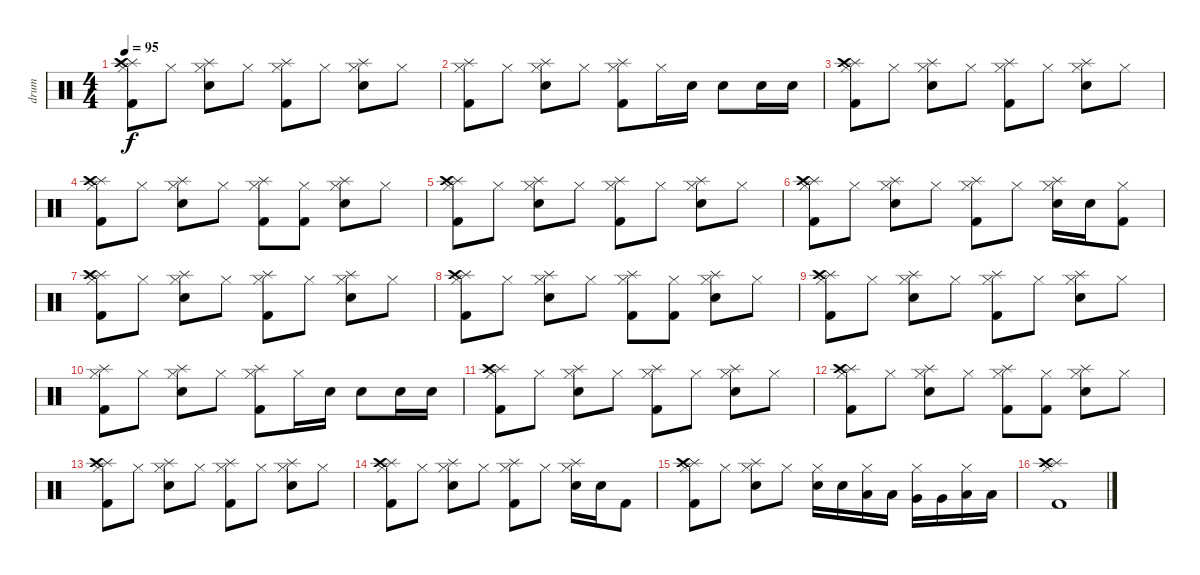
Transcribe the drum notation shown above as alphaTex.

\track ("drum" "drum") {instrument percussion}
\staff {score}
\articulation defaults
\ts (4 4)
\tempo 95
\clef neutral
\ks c
("Splash (hit)" "Hi-Hat (closed)" "Crash high (hit)" "Kick (hit) 2").8{dy f} "Hi-Hat (closed)".8 ("Splash (hit)" "Hi-Hat (closed)" "Electric Snare (hit)").8 "Hi-Hat (closed)".8 ("Splash (hit)" "Hi-Hat (closed)" "Kick (hit) 2").8 "Hi-Hat (closed)".8 ("Splash (hit)" "Hi-Hat (closed)" "Electric Snare (hit)").8 "Hi-Hat (closed)".8 |
("Splash (hit)" "Hi-Hat (closed)" "Kick (hit) 2").8 "Hi-Hat (closed)".8 ("Splash (hit)" "Hi-Hat (closed)" "Electric Snare (hit)").8 "Hi-Hat (closed)".8 ("Splash (hit)" "Hi-Hat (closed)" "Kick (hit) 2").8 "Hi-Hat (closed)".16 "Electric Snare (hit)".16 "Electric Snare (hit)".8 "Electric Snare (hit)".16 "Electric Snare (hit)".16 |
("Splash (hit)" "Hi-Hat (closed)" "Crash high (hit)" "Kick (hit) 2").8 "Hi-Hat (closed)".8 ("Splash (hit)" "Hi-Hat (closed)" "Electric Snare (hit)").8 "Hi-Hat (closed)".8 ("Splash (hit)" "Hi-Hat (closed)" "Kick (hit) 2").8 "Hi-Hat (closed)".8 ("Splash (hit)" "Hi-Hat (closed)" "Electric Snare (hit)").8 "Hi-Hat (closed)".8 |
("Splash (hit)" "Hi-Hat (closed)" "Crash high (hit)" "Kick (hit) 2").8 "Hi-Hat (closed)".8 ("Splash (hit)" "Hi-Hat (closed)" "Electric Snare (hit)").8 "Hi-Hat (closed)".8 ("Splash (hit)" "Hi-Hat (closed)" "Kick (hit) 2").8 ("Hi-Hat (closed)" "Kick (hit) 2").8 ("Splash (hit)" "Hi-Hat (closed)" "Electric Snare (hit)").8 "Hi-Hat (closed)".8 |
("Splash (hit)" "Hi-Hat (closed)" "Crash high (hit)" "Kick (hit) 2").8 "Hi-Hat (closed)".8 ("Splash (hit)" "Hi-Hat (closed)" "Electric Snare (hit)").8 "Hi-Hat (closed)".8 ("Splash (hit)" "Hi-Hat (closed)" "Kick (hit) 2").8 "Hi-Hat (closed)".8 ("Splash (hit)" "Hi-Hat (closed)" "Electric Snare (hit)").8 "Hi-Hat (closed)".8 |
("Splash (hit)" "Hi-Hat (closed)" "Crash high (hit)" "Kick (hit) 2").8 "Hi-Hat (closed)".8 ("Splash (hit)" "Hi-Hat (closed)" "Electric Snare (hit)").8 "Hi-Hat (closed)".8 ("Splash (hit)" "Hi-Hat (closed)" "Kick (hit) 2").8 "Hi-Hat (closed)".8 ("Splash (hit)" "Hi-Hat (closed)" "Electric Snare (hit)").16 "Electric Snare (hit)".16 ("Hi-Hat (closed)" "Kick (hit) 2").8 |
("Splash (hit)" "Hi-Hat (closed)" "Crash high (hit)" "Kick (hit) 2").8 "Hi-Hat (closed)".8 ("Splash (hit)" "Hi-Hat (closed)" "Electric Snare (hit)").8 "Hi-Hat (closed)".8 ("Splash (hit)" "Hi-Hat (closed)" "Kick (hit) 2").8 "Hi-Hat (closed)".8 ("Splash (hit)" "Hi-Hat (closed)" "Electric Snare (hit)").8 "Hi-Hat (closed)".8 |
("Splash (hit)" "Hi-Hat (closed)" "Crash high (hit)" "Kick (hit) 2").8 "Hi-Hat (closed)".8 ("Splash (hit)" "Hi-Hat (closed)" "Electric Snare (hit)").8 "Hi-Hat (closed)".8 ("Splash (hit)" "Hi-Hat (closed)" "Kick (hit) 2").8 ("Hi-Hat (closed)" "Kick (hit) 2").8 ("Splash (hit)" "Hi-Hat (closed)" "Electric Snare (hit)").8 "Hi-Hat (closed)".8 |
("Splash (hit)" "Hi-Hat (closed)" "Crash high (hit)" "Kick (hit) 2").8 "Hi-Hat (closed)".8 ("Splash (hit)" "Hi-Hat (closed)" "Electric Snare (hit)").8 "Hi-Hat (closed)".8 ("Splash (hit)" "Hi-Hat (closed)" "Kick (hit) 2").8 "Hi-Hat (closed)".8 ("Splash (hit)" "Hi-Hat (closed)" "Electric Snare (hit)").8 "Hi-Hat (closed)".8 |
("Splash (hit)" "Hi-Hat (closed)" "Kick (hit) 2").8 "Hi-Hat (closed)".8 ("Splash (hit)" "Hi-Hat (closed)" "Electric Snare (hit)").8 "Hi-Hat (closed)".8 ("Splash (hit)" "Hi-Hat (closed)" "Kick (hit) 2").8 "Hi-Hat (closed)".16 "Electric Snare (hit)".16 "Electric Snare (hit)".8 "Electric Snare (hit)".16 "Electric Snare (hit)".16 |
("Splash (hit)" "Hi-Hat (closed)" "Crash high (hit)" "Kick (hit) 2").8 "Hi-Hat (closed)".8 ("Splash (hit)" "Hi-Hat (closed)" "Electric Snare (hit)").8 "Hi-Hat (closed)".8 ("Splash (hit)" "Hi-Hat (closed)" "Kick (hit) 2").8 "Hi-Hat (closed)".8 ("Splash (hit)" "Hi-Hat (closed)" "Electric Snare (hit)").8 "Hi-Hat (closed)".8 |
("Splash (hit)" "Hi-Hat (closed)" "Crash high (hit)" "Kick (hit) 2").8 "Hi-Hat (closed)".8 ("Splash (hit)" "Hi-Hat (closed)" "Electric Snare (hit)").8 "Hi-Hat (closed)".8 ("Splash (hit)" "Hi-Hat (closed)" "Kick (hit) 2").8 ("Hi-Hat (closed)" "Kick (hit) 2").8 ("Splash (hit)" "Hi-Hat (closed)" "Electric Snare (hit)").8 "Hi-Hat (closed)".8 |
("Splash (hit)" "Hi-Hat (closed)" "Crash high (hit)" "Kick (hit) 2").8 "Hi-Hat (closed)".8 ("Splash (hit)" "Hi-Hat (closed)" "Electric Snare (hit)").8 "Hi-Hat (closed)".8 ("Splash (hit)" "Hi-Hat (closed)" "Kick (hit) 2").8 "Hi-Hat (closed)".8 ("Splash (hit)" "Hi-Hat (closed)" "Electric Snare (hit)").8 "Hi-Hat (closed)".8 |
("Splash (hit)" "Hi-Hat (closed)" "Crash high (hit)" "Kick (hit) 2").8 "Hi-Hat (closed)".8 ("Splash (hit)" "Hi-Hat (closed)" "Electric Snare (hit)").8 "Hi-Hat (closed)".8 ("Splash (hit)" "Hi-Hat (closed)" "Kick (hit) 2").8 "Hi-Hat (closed)".8 ("Splash (hit)" "Hi-Hat (closed)" "Electric Snare (hit)").16 "Electric Snare (hit)".16 "Kick (hit) 2".8 |
("Splash (hit)" "Hi-Hat (closed)" "Crash high (hit)" "Kick (hit) 2").8 "Hi-Hat (closed)".8 ("Splash (hit)" "Hi-Hat (closed)" "Electric Snare (hit)").8 "Hi-Hat (closed)".8 ("Hi-Hat (closed)" "Electric Snare (hit)").16 "Electric Snare (hit)".16 ("Hi-Hat (closed)" "Low Tom (hit)").16 "Low Tom (hit)".16 ("Hi-Hat (closed)" "Very Low Tom (hit)").16 "Very Low Tom (hit)".16 ("Hi-Hat (closed)" "Low Floor Tom (hit)").16 "Low Floor Tom (hit)".16 |
("Splash (hit)" "Hi-Hat (closed)" "Crash high (hit)" "Kick (hit) 2").1
